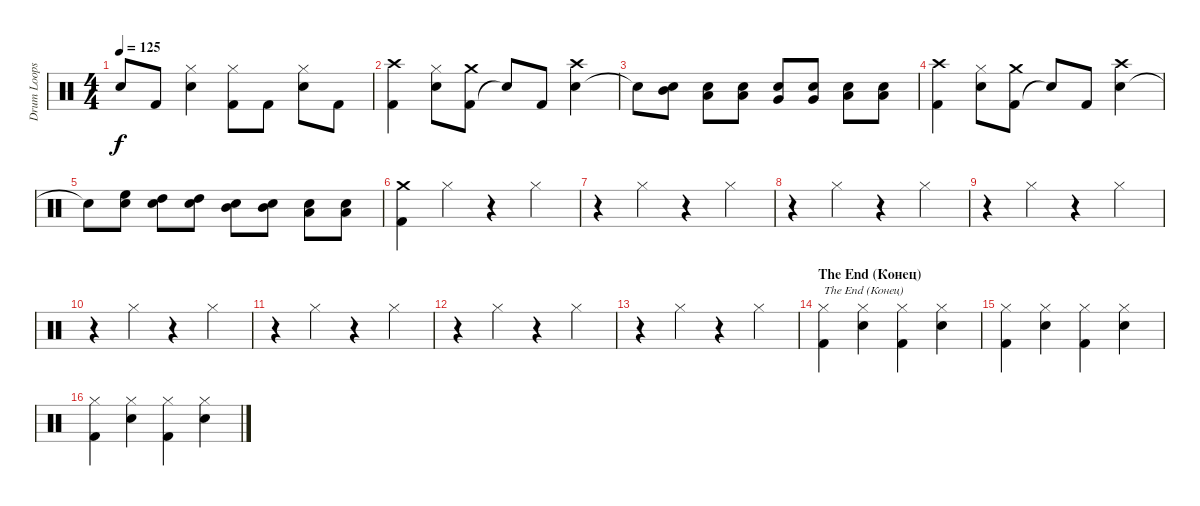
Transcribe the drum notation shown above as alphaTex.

\track ("Drum Loops (Дурачок)" "Drum Loops") {instrument percussion}
\staff {score}
\articulation defaults
\ts (4 4)
\tempo 125
\clef neutral
\ks c "Snare (hit)"{t}.8{dy f} "Kick (hit) 2".8
("Snare (hit) 2" "Hi-Hat (closed)").4 ("Kick (hit) 2" "Hi-Hat (closed)").8 "Kick (hit) 2".8 ("Snare (hit) 2" "Hi-Hat (closed)").8 "Kick (hit) 2".8 |
("Kick (hit) 2" "Crash high (hit)").4 ("Snare (hit) 2" "Hi-Hat (closed)").8 ("Kick (hit) 2" "Crash medium (hit)").8 "Snare (hit)"{t}.8 "Kick (hit) 2".8 ("Snare (hit) 2" "Crash high (hit)").4 |
"Snare (hit)"{t}.8 ("Snare (hit) 2" "Mid Tom (hit)").8 ("Snare (hit) 2" "Low Tom (hit)").8 ("Snare (hit) 2" "Low Tom (hit)").8 ("Snare (hit) 2" "Very Low Tom (hit)").8 ("Snare (hit) 2" "Very Low Tom (hit)").8 ("Snare (hit) 2" "Low Floor Tom (hit)").8 ("Snare (hit) 2" "Low Floor Tom (hit)").8 |
("Kick (hit) 2" "Crash high (hit)").4 ("Snare (hit) 2" "Hi-Hat (closed)").8 ("Kick (hit) 2" "Crash medium (hit)").8 "Snare (hit)"{t}.8 "Kick (hit) 2".8 ("Snare (hit) 2" "Crash high (hit)").4 |
"Snare (hit)"{t}.8 ("Snare (hit) 2" "High Floor Tom (hit)").8 ("Snare (hit) 2" "High Tom (hit)").8 ("Snare (hit) 2" "High Tom (hit)").8 ("Snare (hit) 2" "Mid Tom (hit)").8 ("Snare (hit) 2" "Mid Tom (hit)").8 ("Snare (hit) 2" "Low Tom (hit)").8 ("Snare (hit) 2" "Low Tom (hit)").8 |
("Kick (hit) 2" "Crash medium (hit)").4 "Hi-Hat (closed)".4 r.4 "Hi-Hat (closed)".4 |
r.4 "Hi-Hat (closed)".4 r.4 "Hi-Hat (closed)".4 |
r.4 "Hi-Hat (closed)".4 r.4 "Hi-Hat (closed)".4 |
r.4 "Hi-Hat (closed)".4 r.4 "Hi-Hat (closed)".4 |
r.4 "Hi-Hat (closed)".4 r.4 "Hi-Hat (closed)".4 |
r.4 "Hi-Hat (closed)".4 r.4 "Hi-Hat (closed)".4 |
r.4 "Hi-Hat (closed)".4 r.4 "Hi-Hat (closed)".4 |
r.4 "Hi-Hat (closed)".4 r.4 "Hi-Hat (closed)".4 |
\section ("" "The End (Конец)")
("Kick (hit) 2" "Hi-Hat (closed)").4{txt "The End (Конец)"} ("Snare (hit) 2" "Hi-Hat (closed)").4 ("Kick (hit) 2" "Hi-Hat (closed)").4 ("Snare (hit) 2" "Hi-Hat (closed)").4 |
("Kick (hit) 2" "Hi-Hat (closed)").4 ("Snare (hit) 2" "Hi-Hat (closed)").4 ("Kick (hit) 2" "Hi-Hat (closed)").4 ("Snare (hit) 2" "Hi-Hat (closed)").4 |
("Kick (hit) 2" "Hi-Hat (closed)").4 ("Snare (hit) 2" "Hi-Hat (closed)").4 ("Kick (hit) 2" "Hi-Hat (closed)").4 ("Snare (hit) 2" "Hi-Hat (closed)").4
